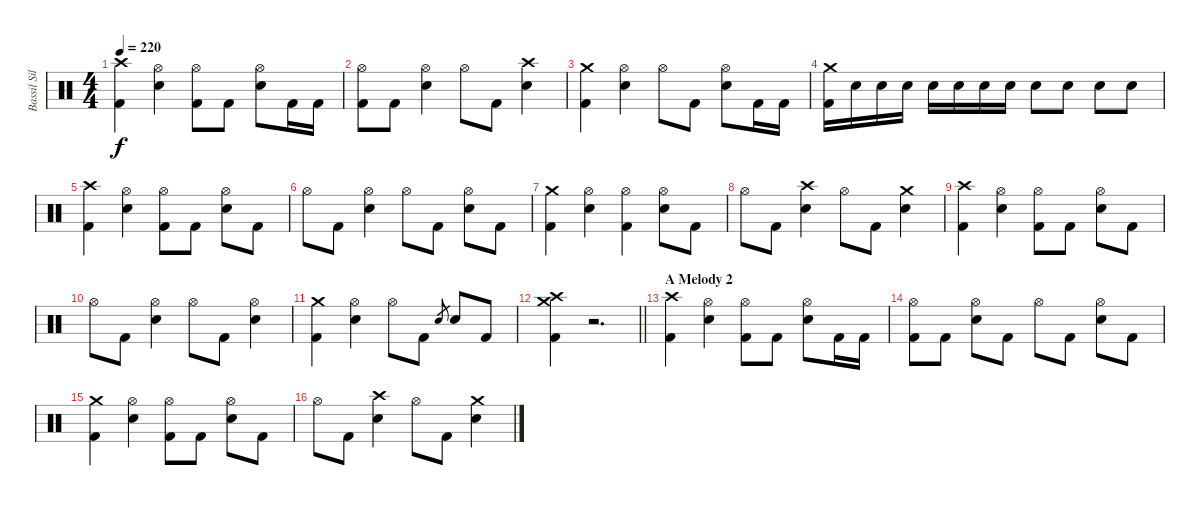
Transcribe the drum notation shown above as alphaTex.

\track ("Bassil Silver-Hajo" "Bassil Sil") {instrument percussion}
\staff {score}
\articulation defaults
\ts (4 4)
\tempo 220
\clef neutral
\ks c
("Crash high (hit)" "Kick (hit) 2").4{dy f} ("Hi-Hat (open)" "Snare (hit) 2").4 ("Hi-Hat (open)" "Kick (hit) 2").8 "Kick (hit) 2".8 ("Hi-Hat (open)" "Snare (hit) 2").8 "Kick (hit) 2".16 "Kick (hit) 2".16 |
("Hi-Hat (open)" "Kick (hit) 2").8 "Kick (hit) 2".8 ("Hi-Hat (open)" "Snare (hit) 2").4 "Hi-Hat (open)".8 "Kick (hit) 2".8 ("Crash high (hit)" "Snare (hit) 2").4 |
("Crash medium (hit)" "Kick (hit) 2").4 ("Hi-Hat (open)" "Snare (hit) 2").4 "Hi-Hat (open)".8 "Kick (hit) 2".8 ("Hi-Hat (open)" "Snare (hit) 2").8 "Kick (hit) 2".16 "Kick (hit) 2".16 |
("Crash medium (hit)" "Kick (hit) 2").16 "Snare (hit) 2".16 "Snare (hit) 2".16 "Snare (hit) 2".16 "Snare (hit) 2".16 "Snare (hit) 2".16 "Snare (hit) 2".16 "Snare (hit) 2".16 "Snare (hit) 2".8 "Snare (hit) 2".8 "Snare (hit) 2".8 "Snare (hit) 2".8 |
("Crash high (hit)" "Kick (hit) 2").4 ("Hi-Hat (open)" "Snare (hit) 2").4 ("Hi-Hat (open)" "Kick (hit) 2").8 "Kick (hit) 2".8 ("Hi-Hat (open)" "Snare (hit) 2").8 "Kick (hit) 2".8 |
"Hi-Hat (open)".8 "Kick (hit) 2".8 ("Hi-Hat (open)" "Snare (hit) 2").4 "Hi-Hat (open)".8 "Kick (hit) 2".8 ("Hi-Hat (open)" "Snare (hit) 2").8 "Kick (hit) 2".8 |
("Crash medium (hit)" "Kick (hit) 2").4 ("Hi-Hat (open)" "Snare (hit) 2").4 ("Hi-Hat (open)" "Kick (hit) 2").4 ("Hi-Hat (open)" "Snare (hit) 2").8 "Kick (hit) 2".8 |
"Hi-Hat (open)".8 "Kick (hit) 2".8 ("Crash high (hit)" "Snare (hit) 2").4 "Hi-Hat (open)".8 "Kick (hit) 2".8 ("Crash medium (hit)" "Snare (hit) 2").4 |
("Crash high (hit)" "Kick (hit) 2").4 ("Hi-Hat (open)" "Snare (hit) 2").4 ("Hi-Hat (open)" "Kick (hit) 2").8 "Kick (hit) 2".8 ("Hi-Hat (open)" "Snare (hit) 2").8 "Kick (hit) 2".8 |
"Hi-Hat (open)".8 "Kick (hit) 2".8 ("Hi-Hat (open)" "Snare (hit) 2").4 "Hi-Hat (open)".8 "Kick (hit) 2".8 ("Hi-Hat (open)" "Snare (hit) 2").4 |
("Crash medium (hit)" "Kick (hit) 2").4 ("Hi-Hat (open)" "Snare (hit) 2").4 "Hi-Hat (open)".8 "Kick (hit) 2".8 "Snare (hit) 2".8{gr} "Snare (hit) 2".8 "Kick (hit) 2".8 |
\barLineRight lightlight
("Crash medium (hit)" "Crash high (hit)" "Kick (hit) 2").4 r.2{d} |
\section ("" "A Melody 2")
("Crash high (hit)" "Kick (hit) 2").4 ("Hi-Hat (open)" "Snare (hit) 2").4 ("Hi-Hat (open)" "Kick (hit) 2").8 "Kick (hit) 2".8 ("Hi-Hat (open)" "Snare (hit) 2").8 "Kick (hit) 2".16 "Kick (hit) 2".16 |
("Hi-Hat (open)" "Kick (hit) 2").8 "Kick (hit) 2".8 ("Hi-Hat (open)" "Snare (hit) 2").8 "Kick (hit) 2".8 "Hi-Hat (open)".8 "Kick (hit) 2".8 ("Hi-Hat (open)" "Snare (hit) 2").8 "Kick (hit) 2".8 |
("Crash medium (hit)" "Kick (hit) 2").4 ("Hi-Hat (open)" "Snare (hit) 2").4 ("Hi-Hat (open)" "Kick (hit) 2").8 "Kick (hit) 2".8 ("Hi-Hat (open)" "Snare (hit) 2").8 "Kick (hit) 2".8 |
"Hi-Hat (open)".8 "Kick (hit) 2".8 ("Crash high (hit)" "Snare (hit) 2").4 "Hi-Hat (open)".8 "Kick (hit) 2".8 ("Crash medium (hit)" "Snare (hit) 2").4
